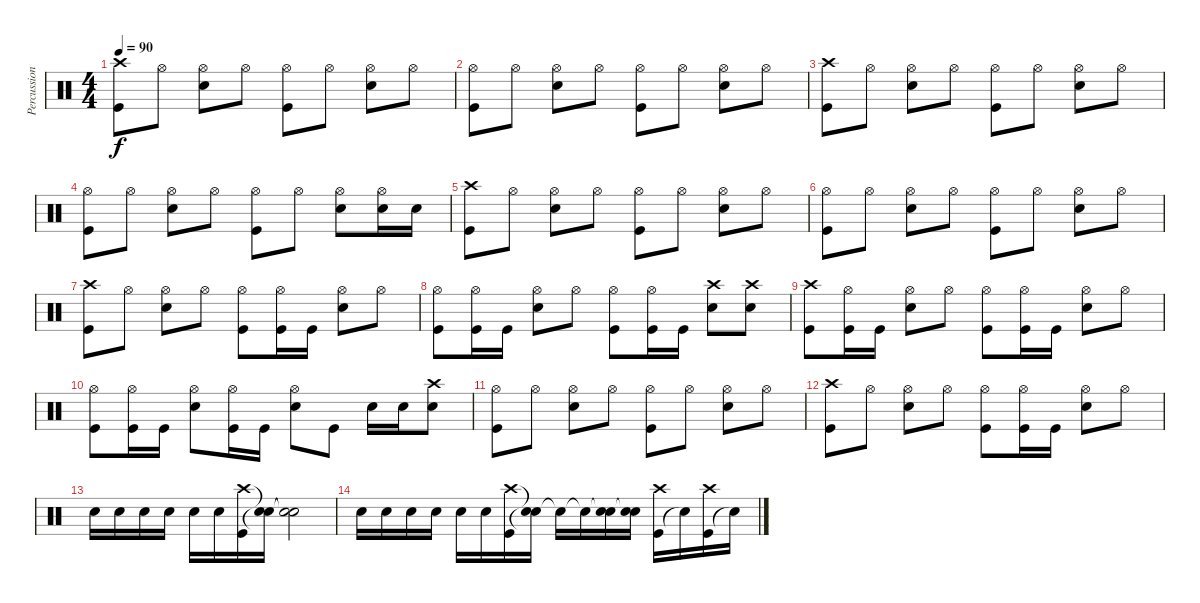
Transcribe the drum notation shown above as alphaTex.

\track ("Percussion" "Percussion") {instrument percussion}
\staff {score}
\articulation defaults
\ts (4 4)
\tempo 90
\clef neutral
\ks c
("Crash high (hit)" "Kick (hit)").8{dy f} "Hi-Hat (open)".8 ("Hi-Hat (open)" "Snare (hit) 2").8 "Hi-Hat (open)".8 ("Hi-Hat (open)" "Kick (hit)").8 "Hi-Hat (open)".8 ("Hi-Hat (open)" "Snare (hit) 2").8 "Hi-Hat (open)".8 |
("Hi-Hat (open)" "Kick (hit)").8 "Hi-Hat (open)".8 ("Hi-Hat (open)" "Snare (hit) 2").8 "Hi-Hat (open)".8 ("Hi-Hat (open)" "Kick (hit)").8 "Hi-Hat (open)".8 ("Hi-Hat (open)" "Snare (hit) 2").8 "Hi-Hat (open)".8 |
("Crash high (hit)" "Kick (hit)").8 "Hi-Hat (open)".8 ("Hi-Hat (open)" "Snare (hit) 2").8 "Hi-Hat (open)".8 ("Hi-Hat (open)" "Kick (hit)").8 "Hi-Hat (open)".8 ("Hi-Hat (open)" "Snare (hit) 2").8 "Hi-Hat (open)".8 |
("Hi-Hat (open)" "Kick (hit)").8 "Hi-Hat (open)".8 ("Hi-Hat (open)" "Snare (hit) 2").8 "Hi-Hat (open)".8 ("Hi-Hat (open)" "Kick (hit)").8 "Hi-Hat (open)".8 ("Hi-Hat (open)" "Snare (hit) 2").8 ("Hi-Hat (open)" "Snare (hit) 2").16 "Snare (hit) 2".16 |
("Crash high (hit)" "Kick (hit)").8 "Hi-Hat (open)".8 ("Hi-Hat (open)" "Snare (hit) 2").8 "Hi-Hat (open)".8 ("Hi-Hat (open)" "Kick (hit)").8 "Hi-Hat (open)".8 ("Hi-Hat (open)" "Snare (hit) 2").8 "Hi-Hat (open)".8 |
("Hi-Hat (open)" "Kick (hit)").8 "Hi-Hat (open)".8 ("Hi-Hat (open)" "Snare (hit) 2").8 "Hi-Hat (open)".8 ("Hi-Hat (open)" "Kick (hit)").8 "Hi-Hat (open)".8 ("Hi-Hat (open)" "Snare (hit) 2").8 "Hi-Hat (open)".8 |
("Crash high (hit)" "Kick (hit)").8 "Hi-Hat (open)".8 ("Hi-Hat (open)" "Snare (hit) 2").8 "Hi-Hat (open)".8 ("Hi-Hat (open)" "Kick (hit)").8 ("Hi-Hat (open)" "Kick (hit)").16 "Kick (hit)".16 ("Hi-Hat (open)" "Snare (hit) 2").8 "Hi-Hat (open)".8 |
("Hi-Hat (open)" "Kick (hit)").8 ("Hi-Hat (open)" "Kick (hit)").16 "Kick (hit)".16 ("Hi-Hat (open)" "Snare (hit) 2").8 "Hi-Hat (open)".8 ("Hi-Hat (open)" "Kick (hit)").8 ("Hi-Hat (open)" "Kick (hit)").16 "Kick (hit)".16 ("Crash high (hit)" "Snare (hit) 2").8 ("Crash high (hit)" "Snare (hit) 2").8 |
("Crash high (hit)" "Kick (hit)").8 ("Hi-Hat (open)" "Kick (hit)").16 "Kick (hit)".16 ("Hi-Hat (open)" "Snare (hit) 2").8 "Hi-Hat (open)".8 ("Hi-Hat (open)" "Kick (hit)").8 ("Hi-Hat (open)" "Kick (hit)").16 "Kick (hit)".16 ("Hi-Hat (open)" "Snare (hit) 2").8 "Hi-Hat (open)".8 |
("Hi-Hat (open)" "Kick (hit)").8 ("Hi-Hat (open)" "Kick (hit)").16 "Kick (hit)".16 ("Hi-Hat (open)" "Snare (hit) 2").8 ("Hi-Hat (open)" "Kick (hit)").16 "Kick (hit)".16 ("Hi-Hat (open)" "Snare (hit) 2").8 "Kick (hit)".8 "Snare (hit) 2".16 "Snare (hit) 2".16 ("Crash high (hit)" "Snare (hit) 2").8 |
("Hi-Hat (open)" "Kick (hit)").8 "Hi-Hat (open)".8 ("Hi-Hat (open)" "Snare (hit) 2").8 "Hi-Hat (open)".8 ("Hi-Hat (open)" "Kick (hit)").8 "Hi-Hat (open)".8 ("Hi-Hat (open)" "Snare (hit) 2").8 "Hi-Hat (open)".8 |
("Crash high (hit)" "Kick (hit)").8 "Hi-Hat (open)".8 ("Hi-Hat (open)" "Snare (hit) 2").8 "Hi-Hat (open)".8 ("Hi-Hat (open)" "Kick (hit)").8 ("Hi-Hat (open)" "Kick (hit)").16 "Kick (hit)".16 ("Hi-Hat (open)" "Snare (hit) 2").8 "Hi-Hat (open)".8 |
"Snare (hit) 2".16 "Snare (hit) 2".16 "Snare (hit) 2".16 "Snare (hit) 2".16 "Snare (hit) 2".16 "Snare (hit) 2".16 ("Crash high (hit)" "Kick (hit)").16 ("Snare (hit)"{t} "Snare (hit)"{t}).16 ("Snare (hit)"{t} "Snare (hit)"{t}).2 |
"Snare (hit) 2".16 "Snare (hit) 2".16 "Snare (hit) 2".16 "Snare (hit) 2".16 "Snare (hit) 2".16 "Snare (hit) 2".16 ("Crash high (hit)" "Kick (hit)").16 ("Snare (hit)"{t} "Snare (hit)"{t}).16 "Snare (hit)"{t}.16 "Snare (hit)"{t}.16 ("Snare (hit)"{t} "Snare (hit) 2").16 ("Snare (hit)"{t} "Snare (hit) 2").16 ("Kick (hit)" "Crash high (hit)").16 "Snare (hit)"{t}.16 ("Kick (hit)" "Crash high (hit)").16 "Snare (hit)"{t}.16
